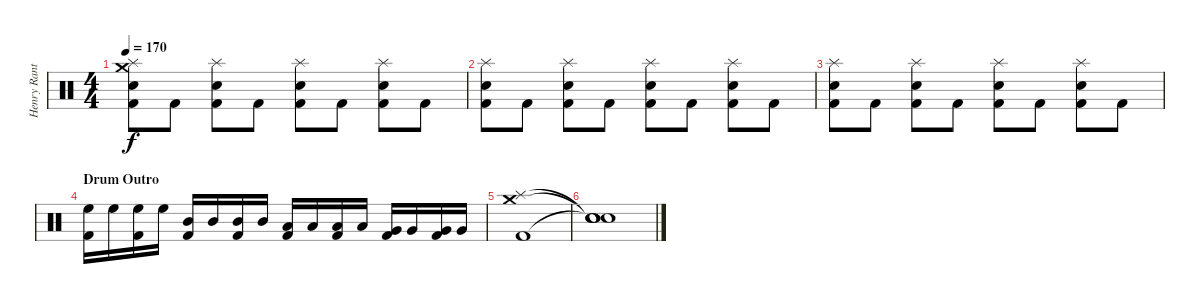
\track ("Henry Ranta -Drums-" "Henry Rant") {instrument percussion}
\staff {score}
\articulation defaults
\ts (4 4)
\tempo 170
\clef neutral
\ks c
("Splash (hit)" "Crash medium (hit)" "Snare (hit) 2" "Kick (hit) 2").8{dy f} "Kick (hit) 2".8 ("Splash (hit)" "Snare (hit) 2" "Kick (hit) 2").8 "Kick (hit) 2".8 ("Splash (hit)" "Snare (hit) 2" "Kick (hit) 2").8 "Kick (hit) 2".8 ("Splash (hit)" "Snare (hit) 2" "Kick (hit) 2").8 "Kick (hit) 2".8 |
("Splash (hit)" "Snare (hit) 2" "Kick (hit) 2").8 "Kick (hit) 2".8 ("Splash (hit)" "Snare (hit) 2" "Kick (hit) 2").8 "Kick (hit) 2".8 ("Splash (hit)" "Snare (hit) 2" "Kick (hit) 2").8 "Kick (hit) 2".8 ("Splash (hit)" "Snare (hit) 2" "Kick (hit) 2").8 "Kick (hit) 2".8 |
("Splash (hit)" "Snare (hit) 2" "Kick (hit) 2").8 "Kick (hit) 2".8 ("Splash (hit)" "Snare (hit) 2" "Kick (hit) 2").8 "Kick (hit) 2".8 ("Splash (hit)" "Snare (hit) 2" "Kick (hit) 2").8 "Kick (hit) 2".8 ("Splash (hit)" "Snare (hit) 2" "Kick (hit) 2").8 "Kick (hit) 2".8 |
\section ("" "Drum Outro")
("High Floor Tom (hit)" "Kick (hit) 2").16 "High Floor Tom (hit)".16 ("High Floor Tom (hit)" "Kick (hit) 2").16 "High Floor Tom (hit)".16 ("Mid Tom (hit)" "Kick (hit) 2").16 "Mid Tom (hit)".16 ("Mid Tom (hit)" "Kick (hit) 2").16 "Mid Tom (hit)".16 ("Low Tom (hit)" "Kick (hit) 2").16 "Low Tom (hit)".16 ("Low Tom (hit)" "Kick (hit) 2").16 "Low Tom (hit)".16 ("Very Low Tom (hit)" "Kick (hit) 2").16 "Very Low Tom (hit)".16 ("Very Low Tom (hit)" "Kick (hit) 2").16 "Very Low Tom (hit)".16 |
("Splash (hit)" "Crash medium (hit)" "Kick (hit) 2").1 |
("Snare (hit)"{t} "Snare (hit)"{t} "Snare (hit)"{t} "Snare (hit)").1
